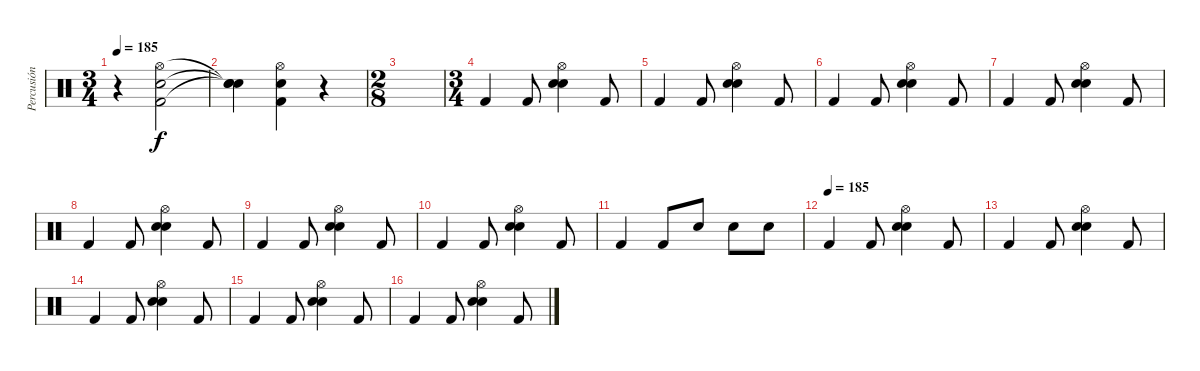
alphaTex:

\track ("Percusión" "Percusión") {instrument percussion}
\staff {score}
\articulation defaults
\ts (3 4)
\tempo 185
\clef neutral
\ks c
r.4{dy f} ("Hi-Hat (open)" "Electric Snare (hit)" "Kick (hit) 2").2 |
("Snare (hit)"{t} "Snare (hit)"{t} "Snare (hit)"{t}).4 ("Hi-Hat (open)" "Electric Snare (hit)" "Kick (hit) 2").4 r.4 |
\ts (2 8)
|
\ts (3 4)
"Kick (hit) 2".4 "Kick (hit) 2".8 ("Hi-Hat (open)" "Electric Snare (hit)" "Snare (hit) 2").4 "Kick (hit) 2".8 |
"Kick (hit) 2".4 "Kick (hit) 2".8 ("Hi-Hat (open)" "Electric Snare (hit)" "Snare (hit) 2").4 "Kick (hit) 2".8 |
"Kick (hit) 2".4 "Kick (hit) 2".8 ("Hi-Hat (open)" "Electric Snare (hit)" "Snare (hit) 2").4 "Kick (hit) 2".8 |
"Kick (hit) 2".4 "Kick (hit) 2".8 ("Hi-Hat (open)" "Electric Snare (hit)" "Snare (hit) 2").4 "Kick (hit) 2".8 |
"Kick (hit) 2".4 "Kick (hit) 2".8 ("Hi-Hat (open)" "Electric Snare (hit)" "Snare (hit) 2").4 "Kick (hit) 2".8 |
"Kick (hit) 2".4 "Kick (hit) 2".8 ("Hi-Hat (open)" "Electric Snare (hit)" "Snare (hit) 2").4 "Kick (hit) 2".8 |
"Kick (hit) 2".4 "Kick (hit) 2".8 ("Hi-Hat (open)" "Electric Snare (hit)" "Snare (hit) 2").4 "Kick (hit) 2".8 |
"Kick (hit) 2".4 "Kick (hit) 2".8 "Electric Snare (hit)".8 "Electric Snare (hit)".8 "Electric Snare (hit)".8 |
\tempo (185)
"Kick (hit) 2".4 "Kick (hit) 2".8 ("Hi-Hat (open)" "Electric Snare (hit)" "Snare (hit) 2").4 "Kick (hit) 2".8 |
"Kick (hit) 2".4 "Kick (hit) 2".8 ("Hi-Hat (open)" "Electric Snare (hit)" "Snare (hit) 2").4 "Kick (hit) 2".8 |
"Kick (hit) 2".4 "Kick (hit) 2".8 ("Hi-Hat (open)" "Electric Snare (hit)" "Snare (hit) 2").4 "Kick (hit) 2".8 |
"Kick (hit) 2".4 "Kick (hit) 2".8 ("Hi-Hat (open)" "Electric Snare (hit)" "Snare (hit) 2").4 "Kick (hit) 2".8 |
"Kick (hit) 2".4 "Kick (hit) 2".8 ("Hi-Hat (open)" "Electric Snare (hit)" "Snare (hit) 2").4 "Kick (hit) 2".8
